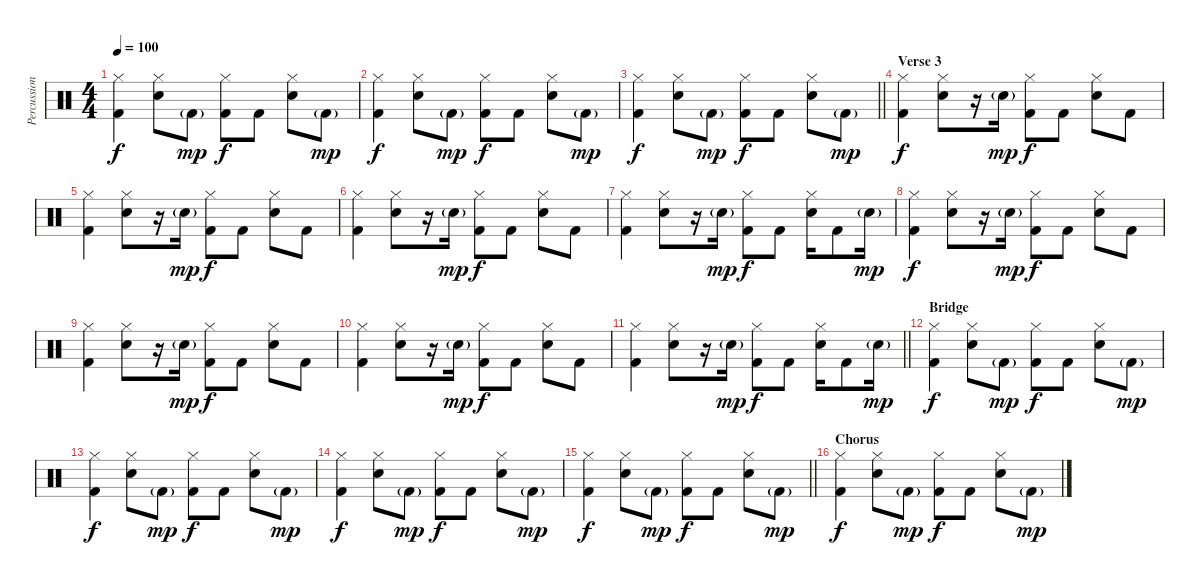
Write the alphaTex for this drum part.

\track ("Percussion" "Percussion") {instrument percussion}
\staff {score}
\articulation defaults
\ts (4 4)
\tempo 100
\clef neutral
\ks c
("Hi-Hat (closed)" "Kick (hit) 2").4{dy f} ("Hi-Hat (closed)" "Snare (hit) 2").8 "Kick (hit) 2"{g}.8{dy mp} ("Hi-Hat (closed)" "Kick (hit) 2").8{dy f} "Kick (hit) 2".8 ("Hi-Hat (closed)" "Snare (hit) 2").8 "Kick (hit) 2"{g}.8{dy mp} |
("Hi-Hat (closed)" "Kick (hit) 2").4{dy f} ("Hi-Hat (closed)" "Snare (hit) 2").8 "Kick (hit) 2"{g}.8{dy mp} ("Hi-Hat (closed)" "Kick (hit) 2").8{dy f} "Kick (hit) 2".8 ("Hi-Hat (closed)" "Snare (hit) 2").8 "Kick (hit) 2"{g}.8{dy mp} |
\barLineRight lightlight
("Hi-Hat (closed)" "Kick (hit) 2").4{dy f} ("Hi-Hat (closed)" "Snare (hit) 2").8 "Kick (hit) 2"{g}.8{dy mp} ("Hi-Hat (closed)" "Kick (hit) 2").8{dy f} "Kick (hit) 2".8 ("Hi-Hat (closed)" "Snare (hit) 2").8 "Kick (hit) 2"{g}.8{dy mp} |
\section ("" "Verse 3")
("Hi-Hat (closed)" "Kick (hit) 2").4{dy f} ("Hi-Hat (closed)" "Snare (hit) 2").8 r.16 "Snare (hit) 2"{g}.16{dy mp} ("Hi-Hat (closed)" "Kick (hit) 2").8{dy f} "Kick (hit) 2".8 ("Hi-Hat (closed)" "Snare (hit) 2").8 "Kick (hit) 2".8 |
("Hi-Hat (closed)" "Kick (hit) 2").4 ("Hi-Hat (closed)" "Snare (hit) 2").8 r.16 "Snare (hit) 2"{g}.16{dy mp} ("Hi-Hat (closed)" "Kick (hit) 2").8{dy f} "Kick (hit) 2".8 ("Hi-Hat (closed)" "Snare (hit) 2").8 "Kick (hit) 2".8 |
("Hi-Hat (closed)" "Kick (hit) 2").4 ("Hi-Hat (closed)" "Snare (hit) 2").8 r.16 "Snare (hit) 2"{g}.16{dy mp} ("Hi-Hat (closed)" "Kick (hit) 2").8{dy f} "Kick (hit) 2".8 ("Hi-Hat (closed)" "Snare (hit) 2").8 "Kick (hit) 2".8 |
("Hi-Hat (closed)" "Kick (hit) 2").4 ("Hi-Hat (closed)" "Snare (hit) 2").8 r.16 "Snare (hit) 2"{g}.16{dy mp} ("Hi-Hat (closed)" "Kick (hit) 2").8{dy f} "Kick (hit) 2".8 ("Hi-Hat (closed)" "Snare (hit) 2").16 "Kick (hit) 2".8 "Snare (hit) 2"{g}.16{dy mp} |
("Hi-Hat (closed)" "Kick (hit) 2").4{dy f} ("Hi-Hat (closed)" "Snare (hit) 2").8 r.16 "Snare (hit) 2"{g}.16{dy mp} ("Hi-Hat (closed)" "Kick (hit) 2").8{dy f} "Kick (hit) 2".8 ("Hi-Hat (closed)" "Snare (hit) 2").8 "Kick (hit) 2".8 |
("Hi-Hat (closed)" "Kick (hit) 2").4 ("Hi-Hat (closed)" "Snare (hit) 2").8 r.16 "Snare (hit) 2"{g}.16{dy mp} ("Hi-Hat (closed)" "Kick (hit) 2").8{dy f} "Kick (hit) 2".8 ("Hi-Hat (closed)" "Snare (hit) 2").8 "Kick (hit) 2".8 |
("Hi-Hat (closed)" "Kick (hit) 2").4 ("Hi-Hat (closed)" "Snare (hit) 2").8 r.16 "Snare (hit) 2"{g}.16{dy mp} ("Hi-Hat (closed)" "Kick (hit) 2").8{dy f} "Kick (hit) 2".8 ("Hi-Hat (closed)" "Snare (hit) 2").8 "Kick (hit) 2".8 |
\barLineRight lightlight
("Hi-Hat (closed)" "Kick (hit) 2").4 ("Hi-Hat (closed)" "Snare (hit) 2").8 r.16 "Snare (hit) 2"{g}.16{dy mp} ("Hi-Hat (closed)" "Kick (hit) 2").8{dy f} "Kick (hit) 2".8 ("Hi-Hat (closed)" "Snare (hit) 2").16 "Kick (hit) 2".8 "Snare (hit) 2"{g}.16{dy mp} |
\section ("" "Bridge")
("Hi-Hat (closed)" "Kick (hit) 2").4{dy f} ("Hi-Hat (closed)" "Snare (hit) 2").8 "Kick (hit) 2"{g}.8{dy mp} ("Hi-Hat (closed)" "Kick (hit) 2").8{dy f} "Kick (hit) 2".8 ("Hi-Hat (closed)" "Snare (hit) 2").8 "Kick (hit) 2"{g}.8{dy mp} |
("Hi-Hat (closed)" "Kick (hit) 2").4{dy f} ("Hi-Hat (closed)" "Snare (hit) 2").8 "Kick (hit) 2"{g}.8{dy mp} ("Hi-Hat (closed)" "Kick (hit) 2").8{dy f} "Kick (hit) 2".8 ("Hi-Hat (closed)" "Snare (hit) 2").8 "Kick (hit) 2"{g}.8{dy mp} |
("Hi-Hat (closed)" "Kick (hit) 2").4{dy f} ("Hi-Hat (closed)" "Snare (hit) 2").8 "Kick (hit) 2"{g}.8{dy mp} ("Hi-Hat (closed)" "Kick (hit) 2").8{dy f} "Kick (hit) 2".8 ("Hi-Hat (closed)" "Snare (hit) 2").8 "Kick (hit) 2"{g}.8{dy mp} |
\barLineRight lightlight
("Hi-Hat (closed)" "Kick (hit) 2").4{dy f} ("Hi-Hat (closed)" "Snare (hit) 2").8 "Kick (hit) 2"{g}.8{dy mp} ("Hi-Hat (closed)" "Kick (hit) 2").8{dy f} "Kick (hit) 2".8 ("Hi-Hat (closed)" "Snare (hit) 2").8 "Kick (hit) 2"{g}.8{dy mp} |
\section ("" "Chorus")
("Hi-Hat (closed)" "Kick (hit) 2").4{dy f} ("Hi-Hat (closed)" "Snare (hit) 2").8 "Kick (hit) 2"{g}.8{dy mp} ("Hi-Hat (closed)" "Kick (hit) 2").8{dy f} "Kick (hit) 2".8 ("Hi-Hat (closed)" "Snare (hit) 2").8 "Kick (hit) 2"{g}.8{dy mp}
